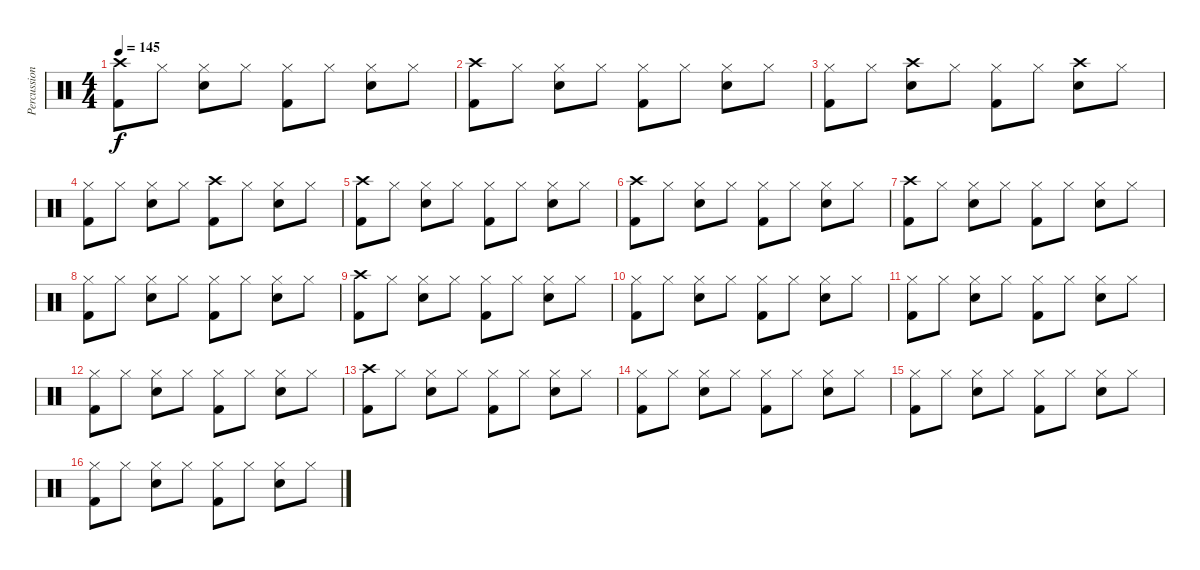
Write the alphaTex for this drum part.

\track ("Percussion" "Percussion") {instrument percussion}
\staff {score}
\articulation defaults
\ts (4 4)
\tempo 145
\clef neutral
\ks c
("Crash high (hit)" "Kick (hit) 2").8{dy f} "Hi-Hat (closed)".8 ("Hi-Hat (closed)" "Snare (hit) 2").8 "Hi-Hat (closed)".8 ("Hi-Hat (closed)" "Kick (hit) 2").8 "Hi-Hat (closed)".8 ("Hi-Hat (closed)" "Snare (hit) 2").8 "Hi-Hat (closed)".8 |
("Crash high (hit)" "Kick (hit) 2").8 "Hi-Hat (closed)".8 ("Hi-Hat (closed)" "Snare (hit) 2").8 "Hi-Hat (closed)".8 ("Hi-Hat (closed)" "Kick (hit) 2").8 "Hi-Hat (closed)".8 ("Hi-Hat (closed)" "Snare (hit) 2").8 "Hi-Hat (closed)".8 |
("Hi-Hat (closed)" "Kick (hit) 2").8 "Hi-Hat (closed)".8 ("Crash high (hit)" "Snare (hit) 2").8 "Hi-Hat (closed)".8 ("Hi-Hat (closed)" "Kick (hit) 2").8 "Hi-Hat (closed)".8 ("Crash high (hit)" "Snare (hit) 2").8 "Hi-Hat (closed)".8 |
("Hi-Hat (closed)" "Kick (hit) 2").8 "Hi-Hat (closed)".8 ("Hi-Hat (closed)" "Snare (hit) 2").8 "Hi-Hat (closed)".8 ("Crash high (hit)" "Kick (hit) 2").8 "Hi-Hat (closed)".8 ("Hi-Hat (closed)" "Snare (hit) 2").8 "Hi-Hat (closed)".8 |
("Crash high (hit)" "Kick (hit) 2").8 "Hi-Hat (closed)".8 ("Hi-Hat (closed)" "Snare (hit) 2").8 "Hi-Hat (closed)".8 ("Hi-Hat (closed)" "Kick (hit) 2").8 "Hi-Hat (closed)".8 ("Hi-Hat (closed)" "Snare (hit) 2").8 "Hi-Hat (closed)".8 |
("Crash high (hit)" "Kick (hit) 2").8 "Hi-Hat (closed)".8 ("Hi-Hat (closed)" "Snare (hit) 2").8 "Hi-Hat (closed)".8 ("Hi-Hat (closed)" "Kick (hit) 2").8 "Hi-Hat (closed)".8 ("Hi-Hat (closed)" "Snare (hit) 2").8 "Hi-Hat (closed)".8 |
("Crash high (hit)" "Kick (hit) 2").8 "Hi-Hat (closed)".8 ("Hi-Hat (closed)" "Snare (hit) 2").8 "Hi-Hat (closed)".8 ("Hi-Hat (closed)" "Kick (hit) 2").8 "Hi-Hat (closed)".8 ("Hi-Hat (closed)" "Snare (hit) 2").8 "Hi-Hat (closed)".8 |
("Hi-Hat (closed)" "Kick (hit) 2").8 "Hi-Hat (closed)".8 ("Hi-Hat (closed)" "Snare (hit) 2").8 "Hi-Hat (closed)".8 ("Hi-Hat (closed)" "Kick (hit) 2").8 "Hi-Hat (closed)".8 ("Hi-Hat (closed)" "Snare (hit) 2").8 "Hi-Hat (closed)".8 |
("Crash high (hit)" "Kick (hit) 2").8 "Hi-Hat (closed)".8 ("Hi-Hat (closed)" "Snare (hit) 2").8 "Hi-Hat (closed)".8 ("Hi-Hat (closed)" "Kick (hit) 2").8 "Hi-Hat (closed)".8 ("Hi-Hat (closed)" "Snare (hit) 2").8 "Hi-Hat (closed)".8 |
("Hi-Hat (closed)" "Kick (hit) 2").8 "Hi-Hat (closed)".8 ("Hi-Hat (closed)" "Snare (hit) 2").8 "Hi-Hat (closed)".8 ("Hi-Hat (closed)" "Kick (hit) 2").8 "Hi-Hat (closed)".8 ("Hi-Hat (closed)" "Snare (hit) 2").8 "Hi-Hat (closed)".8 |
("Hi-Hat (closed)" "Kick (hit) 2").8 "Hi-Hat (closed)".8 ("Hi-Hat (closed)" "Snare (hit) 2").8 "Hi-Hat (closed)".8 ("Hi-Hat (closed)" "Kick (hit) 2").8 "Hi-Hat (closed)".8 ("Hi-Hat (closed)" "Snare (hit) 2").8 "Hi-Hat (closed)".8 |
("Hi-Hat (closed)" "Kick (hit) 2").8 "Hi-Hat (closed)".8 ("Hi-Hat (closed)" "Snare (hit) 2").8 "Hi-Hat (closed)".8 ("Hi-Hat (closed)" "Kick (hit) 2").8 "Hi-Hat (closed)".8 ("Hi-Hat (closed)" "Snare (hit) 2").8 "Hi-Hat (closed)".8 |
("Crash high (hit)" "Kick (hit) 2").8 "Hi-Hat (closed)".8 ("Hi-Hat (closed)" "Snare (hit) 2").8 "Hi-Hat (closed)".8 ("Hi-Hat (closed)" "Kick (hit) 2").8 "Hi-Hat (closed)".8 ("Hi-Hat (closed)" "Snare (hit) 2").8 "Hi-Hat (closed)".8 |
("Hi-Hat (closed)" "Kick (hit) 2").8 "Hi-Hat (closed)".8 ("Hi-Hat (closed)" "Snare (hit) 2").8 "Hi-Hat (closed)".8 ("Hi-Hat (closed)" "Kick (hit) 2").8 "Hi-Hat (closed)".8 ("Hi-Hat (closed)" "Snare (hit) 2").8 "Hi-Hat (closed)".8 |
("Hi-Hat (closed)" "Kick (hit) 2").8 "Hi-Hat (closed)".8 ("Hi-Hat (closed)" "Snare (hit) 2").8 "Hi-Hat (closed)".8 ("Hi-Hat (closed)" "Kick (hit) 2").8 "Hi-Hat (closed)".8 ("Hi-Hat (closed)" "Snare (hit) 2").8 "Hi-Hat (closed)".8 |
("Hi-Hat (closed)" "Kick (hit) 2").8 "Hi-Hat (closed)".8 ("Hi-Hat (closed)" "Snare (hit) 2").8 "Hi-Hat (closed)".8 ("Hi-Hat (closed)" "Kick (hit) 2").8 "Hi-Hat (closed)".8 ("Hi-Hat (closed)" "Snare (hit) 2").8 "Hi-Hat (closed)".8
